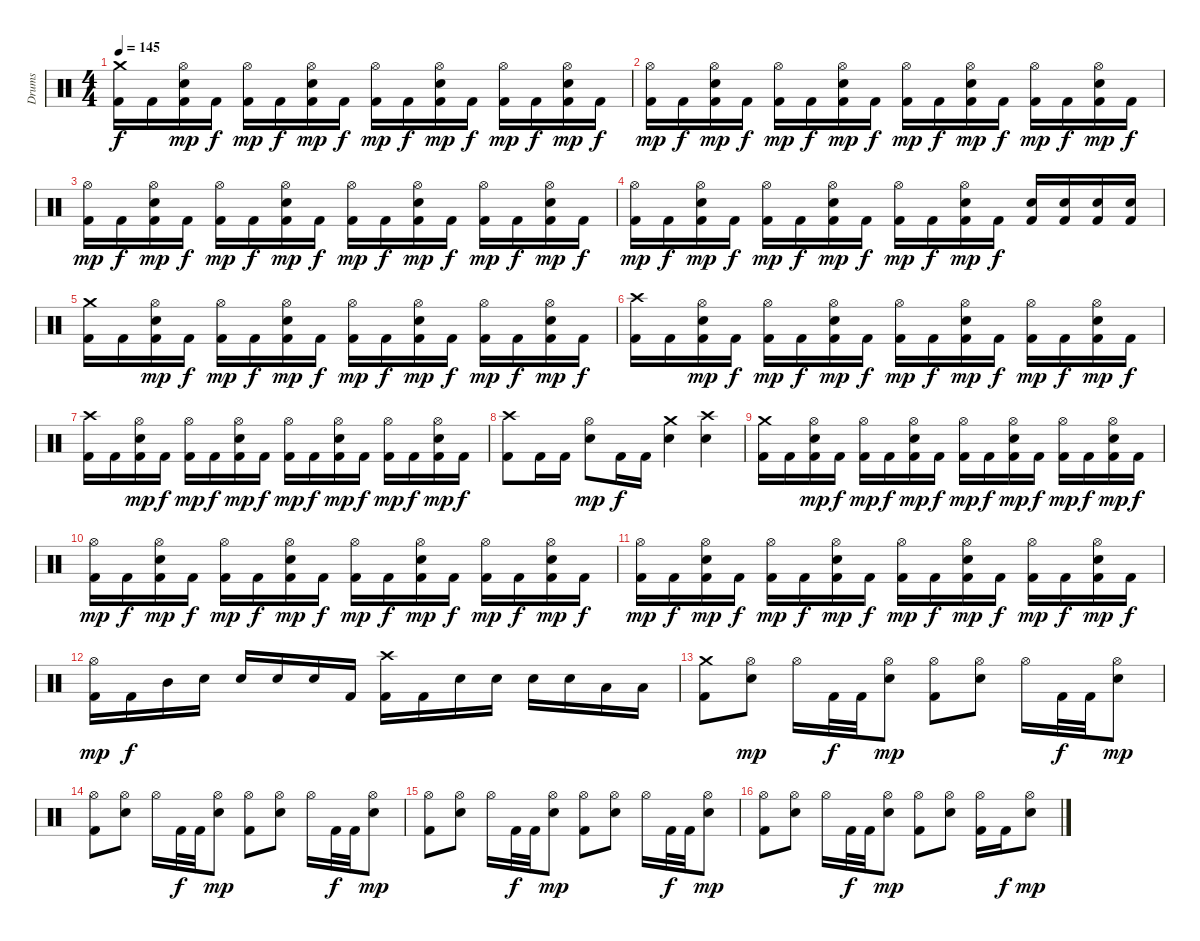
\track ("Drums" "Drums") {instrument percussion}
\staff {score}
\articulation defaults
\ts (4 4)
\tempo 145
\clef neutral
\ks c
("Crash medium (hit)" "Kick (hit) 2").16{dy f} "Kick (hit) 2".16 ("Hi-Hat (open)" "Kick (hit) 2" "Electric Snare (hit)").16{dy mp} "Kick (hit) 2".16{dy f} ("Hi-Hat (open)" "Kick (hit) 2").16{dy mp} "Kick (hit) 2".16{dy f} ("Hi-Hat (open)" "Kick (hit) 2" "Electric Snare (hit)").16{dy mp} "Kick (hit) 2".16{dy f} ("Hi-Hat (open)" "Kick (hit) 2").16{dy mp} "Kick (hit) 2".16{dy f} ("Hi-Hat (open)" "Kick (hit) 2" "Electric Snare (hit)").16{dy mp} "Kick (hit) 2".16{dy f} ("Hi-Hat (open)" "Kick (hit) 2").16{dy mp} "Kick (hit) 2".16{dy f} ("Hi-Hat (open)" "Kick (hit) 2" "Electric Snare (hit)").16{dy mp} "Kick (hit) 2".16{dy f} |
("Hi-Hat (open)" "Kick (hit) 2").16{dy mp} "Kick (hit) 2".16{dy f} ("Hi-Hat (open)" "Kick (hit) 2" "Electric Snare (hit)").16{dy mp} "Kick (hit) 2".16{dy f} ("Hi-Hat (open)" "Kick (hit) 2").16{dy mp} "Kick (hit) 2".16{dy f} ("Hi-Hat (open)" "Kick (hit) 2" "Electric Snare (hit)").16{dy mp} "Kick (hit) 2".16{dy f} ("Hi-Hat (open)" "Kick (hit) 2").16{dy mp} "Kick (hit) 2".16{dy f} ("Hi-Hat (open)" "Kick (hit) 2" "Electric Snare (hit)").16{dy mp} "Kick (hit) 2".16{dy f} ("Hi-Hat (open)" "Kick (hit) 2").16{dy mp} "Kick (hit) 2".16{dy f} ("Hi-Hat (open)" "Kick (hit) 2" "Electric Snare (hit)").16{dy mp} "Kick (hit) 2".16{dy f} |
("Hi-Hat (open)" "Kick (hit) 2").16{dy mp} "Kick (hit) 2".16{dy f} ("Hi-Hat (open)" "Kick (hit) 2" "Electric Snare (hit)").16{dy mp} "Kick (hit) 2".16{dy f} ("Hi-Hat (open)" "Kick (hit) 2").16{dy mp} "Kick (hit) 2".16{dy f} ("Hi-Hat (open)" "Kick (hit) 2" "Electric Snare (hit)").16{dy mp} "Kick (hit) 2".16{dy f} ("Hi-Hat (open)" "Kick (hit) 2").16{dy mp} "Kick (hit) 2".16{dy f} ("Hi-Hat (open)" "Kick (hit) 2" "Electric Snare (hit)").16{dy mp} "Kick (hit) 2".16{dy f} ("Hi-Hat (open)" "Kick (hit) 2").16{dy mp} "Kick (hit) 2".16{dy f} ("Hi-Hat (open)" "Kick (hit) 2" "Electric Snare (hit)").16{dy mp} "Kick (hit) 2".16{dy f} |
("Hi-Hat (open)" "Kick (hit) 2").16{dy mp} "Kick (hit) 2".16{dy f} ("Hi-Hat (open)" "Kick (hit) 2" "Electric Snare (hit)").16{dy mp} "Kick (hit) 2".16{dy f} ("Hi-Hat (open)" "Kick (hit) 2").16{dy mp} "Kick (hit) 2".16{dy f} ("Hi-Hat (open)" "Kick (hit) 2" "Electric Snare (hit)").16{dy mp} "Kick (hit) 2".16{dy f} ("Hi-Hat (open)" "Kick (hit) 2").16{dy mp} "Kick (hit) 2".16{dy f} ("Hi-Hat (open)" "Kick (hit) 2" "Electric Snare (hit)").16{dy mp} "Kick (hit) 2".16{dy f} ("Electric Snare (hit)" "Kick (hit) 2").16 ("Electric Snare (hit)" "Kick (hit) 2").16 ("Electric Snare (hit)" "Kick (hit) 2").16 ("Electric Snare (hit)" "Kick (hit) 2").16 |
("Crash medium (hit)" "Kick (hit) 2").16 "Kick (hit) 2".16 ("Hi-Hat (open)" "Kick (hit) 2" "Electric Snare (hit)").16{dy mp} "Kick (hit) 2".16{dy f} ("Hi-Hat (open)" "Kick (hit) 2").16{dy mp} "Kick (hit) 2".16{dy f} ("Hi-Hat (open)" "Kick (hit) 2" "Electric Snare (hit)").16{dy mp} "Kick (hit) 2".16{dy f} ("Hi-Hat (open)" "Kick (hit) 2").16{dy mp} "Kick (hit) 2".16{dy f} ("Hi-Hat (open)" "Kick (hit) 2" "Electric Snare (hit)").16{dy mp} "Kick (hit) 2".16{dy f} ("Hi-Hat (open)" "Kick (hit) 2").16{dy mp} "Kick (hit) 2".16{dy f} ("Hi-Hat (open)" "Kick (hit) 2" "Electric Snare (hit)").16{dy mp} "Kick (hit) 2".16{dy f} |
("Crash high (hit)" "Kick (hit) 2").16 "Kick (hit) 2".16 ("Hi-Hat (open)" "Kick (hit) 2" "Electric Snare (hit)").16{dy mp} "Kick (hit) 2".16{dy f} ("Hi-Hat (open)" "Kick (hit) 2").16{dy mp} "Kick (hit) 2".16{dy f} ("Hi-Hat (open)" "Kick (hit) 2" "Electric Snare (hit)").16{dy mp} "Kick (hit) 2".16{dy f} ("Hi-Hat (open)" "Kick (hit) 2").16{dy mp} "Kick (hit) 2".16{dy f} ("Hi-Hat (open)" "Kick (hit) 2" "Electric Snare (hit)").16{dy mp} "Kick (hit) 2".16{dy f} ("Hi-Hat (open)" "Kick (hit) 2").16{dy mp} "Kick (hit) 2".16{dy f} ("Hi-Hat (open)" "Kick (hit) 2" "Electric Snare (hit)").16{dy mp} "Kick (hit) 2".16{dy f} |
("Crash high (hit)" "Kick (hit) 2").16 "Kick (hit) 2".16 ("Hi-Hat (open)" "Kick (hit) 2" "Electric Snare (hit)").16{dy mp} "Kick (hit) 2".16{dy f} ("Hi-Hat (open)" "Kick (hit) 2").16{dy mp} "Kick (hit) 2".16{dy f} ("Hi-Hat (open)" "Kick (hit) 2" "Electric Snare (hit)").16{dy mp} "Kick (hit) 2".16{dy f} ("Hi-Hat (open)" "Kick (hit) 2").16{dy mp} "Kick (hit) 2".16{dy f} ("Hi-Hat (open)" "Kick (hit) 2" "Electric Snare (hit)").16{dy mp} "Kick (hit) 2".16{dy f} ("Hi-Hat (open)" "Kick (hit) 2").16{dy mp} "Kick (hit) 2".16{dy f} ("Hi-Hat (open)" "Kick (hit) 2" "Electric Snare (hit)").16{dy mp} "Kick (hit) 2".16{dy f} |
("Crash high (hit)" "Kick (hit) 2").8 "Kick (hit) 2".16 "Kick (hit) 2".16 ("Hi-Hat (open)" "Electric Snare (hit)").8{dy mp} "Kick (hit) 2".16{dy f} "Kick (hit) 2".16 ("Crash medium (hit)" "Electric Snare (hit)").4 ("Crash high (hit)" "Electric Snare (hit)").4 |
("Crash medium (hit)" "Kick (hit) 2").16 "Kick (hit) 2".16 ("Hi-Hat (open)" "Kick (hit) 2" "Electric Snare (hit)").16{dy mp} "Kick (hit) 2".16{dy f} ("Hi-Hat (open)" "Kick (hit) 2").16{dy mp} "Kick (hit) 2".16{dy f} ("Hi-Hat (open)" "Kick (hit) 2" "Electric Snare (hit)").16{dy mp} "Kick (hit) 2".16{dy f} ("Hi-Hat (open)" "Kick (hit) 2").16{dy mp} "Kick (hit) 2".16{dy f} ("Hi-Hat (open)" "Kick (hit) 2" "Electric Snare (hit)").16{dy mp} "Kick (hit) 2".16{dy f} ("Hi-Hat (open)" "Kick (hit) 2").16{dy mp} "Kick (hit) 2".16{dy f} ("Hi-Hat (open)" "Kick (hit) 2" "Electric Snare (hit)").16{dy mp} "Kick (hit) 2".16{dy f} |
("Hi-Hat (open)" "Kick (hit) 2").16{dy mp} "Kick (hit) 2".16{dy f} ("Hi-Hat (open)" "Kick (hit) 2" "Electric Snare (hit)").16{dy mp} "Kick (hit) 2".16{dy f} ("Hi-Hat (open)" "Kick (hit) 2").16{dy mp} "Kick (hit) 2".16{dy f} ("Hi-Hat (open)" "Kick (hit) 2" "Electric Snare (hit)").16{dy mp} "Kick (hit) 2".16{dy f} ("Hi-Hat (open)" "Kick (hit) 2").16{dy mp} "Kick (hit) 2".16{dy f} ("Hi-Hat (open)" "Kick (hit) 2" "Electric Snare (hit)").16{dy mp} "Kick (hit) 2".16{dy f} ("Hi-Hat (open)" "Kick (hit) 2").16{dy mp} "Kick (hit) 2".16{dy f} ("Hi-Hat (open)" "Kick (hit) 2" "Electric Snare (hit)").16{dy mp} "Kick (hit) 2".16{dy f} |
("Hi-Hat (open)" "Kick (hit) 2").16{dy mp} "Kick (hit) 2".16{dy f} ("Hi-Hat (open)" "Kick (hit) 2" "Electric Snare (hit)").16{dy mp} "Kick (hit) 2".16{dy f} ("Hi-Hat (open)" "Kick (hit) 2").16{dy mp} "Kick (hit) 2".16{dy f} ("Hi-Hat (open)" "Kick (hit) 2" "Electric Snare (hit)").16{dy mp} "Kick (hit) 2".16{dy f} ("Hi-Hat (open)" "Kick (hit) 2").16{dy mp} "Kick (hit) 2".16{dy f} ("Hi-Hat (open)" "Kick (hit) 2" "Electric Snare (hit)").16{dy mp} "Kick (hit) 2".16{dy f} ("Hi-Hat (open)" "Kick (hit) 2").16{dy mp} "Kick (hit) 2".16{dy f} ("Hi-Hat (open)" "Kick (hit) 2" "Electric Snare (hit)").16{dy mp} "Kick (hit) 2".16{dy f} |
("Hi-Hat (open)" "Kick (hit) 2").16{dy mp} "Kick (hit) 2".16{dy f} "Mid Tom (hit)".16 "Electric Snare (hit)".16 "Electric Snare (hit)".16 "Electric Snare (hit)".16 "Electric Snare (hit)".16 "Kick (hit) 2".16 ("Crash high (hit)" "Kick (hit) 2").16 "Kick (hit) 2".16 "Electric Snare (hit)".16 "Electric Snare (hit)".16 "Electric Snare (hit)".16 "Electric Snare (hit)".16 "Low Tom (hit)".16 "Low Tom (hit)".16 |
("Crash medium (hit)" "Kick (hit) 2").8 ("Hi-Hat (open)" "Electric Snare (hit)").8{dy mp} "Hi-Hat (open)".16 "Kick (hit) 2".32{dy f} "Kick (hit) 2".32 ("Hi-Hat (open)" "Electric Snare (hit)").8{dy mp} ("Hi-Hat (open)" "Kick (hit) 2").8 ("Hi-Hat (open)" "Electric Snare (hit)").8 "Hi-Hat (open)".16 "Kick (hit) 2".32{dy f} "Kick (hit) 2".32 ("Hi-Hat (open)" "Electric Snare (hit)").8{dy mp} |
("Hi-Hat (open)" "Kick (hit) 2").8 ("Hi-Hat (open)" "Electric Snare (hit)").8 "Hi-Hat (open)".16 "Kick (hit) 2".32{dy f} "Kick (hit) 2".32 ("Hi-Hat (open)" "Electric Snare (hit)").8{dy mp} ("Hi-Hat (open)" "Kick (hit) 2").8 ("Hi-Hat (open)" "Electric Snare (hit)").8 "Hi-Hat (open)".16 "Kick (hit) 2".32{dy f} "Kick (hit) 2".32 ("Hi-Hat (open)" "Electric Snare (hit)").8{dy mp} |
("Hi-Hat (open)" "Kick (hit) 2").8 ("Hi-Hat (open)" "Electric Snare (hit)").8 "Hi-Hat (open)".16 "Kick (hit) 2".32{dy f} "Kick (hit) 2".32 ("Hi-Hat (open)" "Electric Snare (hit)").8{dy mp} ("Hi-Hat (open)" "Kick (hit) 2").8 ("Hi-Hat (open)" "Electric Snare (hit)").8 "Hi-Hat (open)".16 "Kick (hit) 2".32{dy f} "Kick (hit) 2".32 ("Hi-Hat (open)" "Electric Snare (hit)").8{dy mp} |
("Hi-Hat (open)" "Kick (hit) 2").8 ("Hi-Hat (open)" "Electric Snare (hit)").8 "Hi-Hat (open)".16 "Kick (hit) 2".32{dy f} "Kick (hit) 2".32 ("Hi-Hat (open)" "Electric Snare (hit)").8{dy mp} ("Hi-Hat (open)" "Kick (hit) 2").8 ("Hi-Hat (open)" "Electric Snare (hit)").8 ("Hi-Hat (open)" "Kick (hit) 2").16 "Kick (hit) 2".16{dy f} ("Hi-Hat (open)" "Electric Snare (hit)").8{dy mp}
